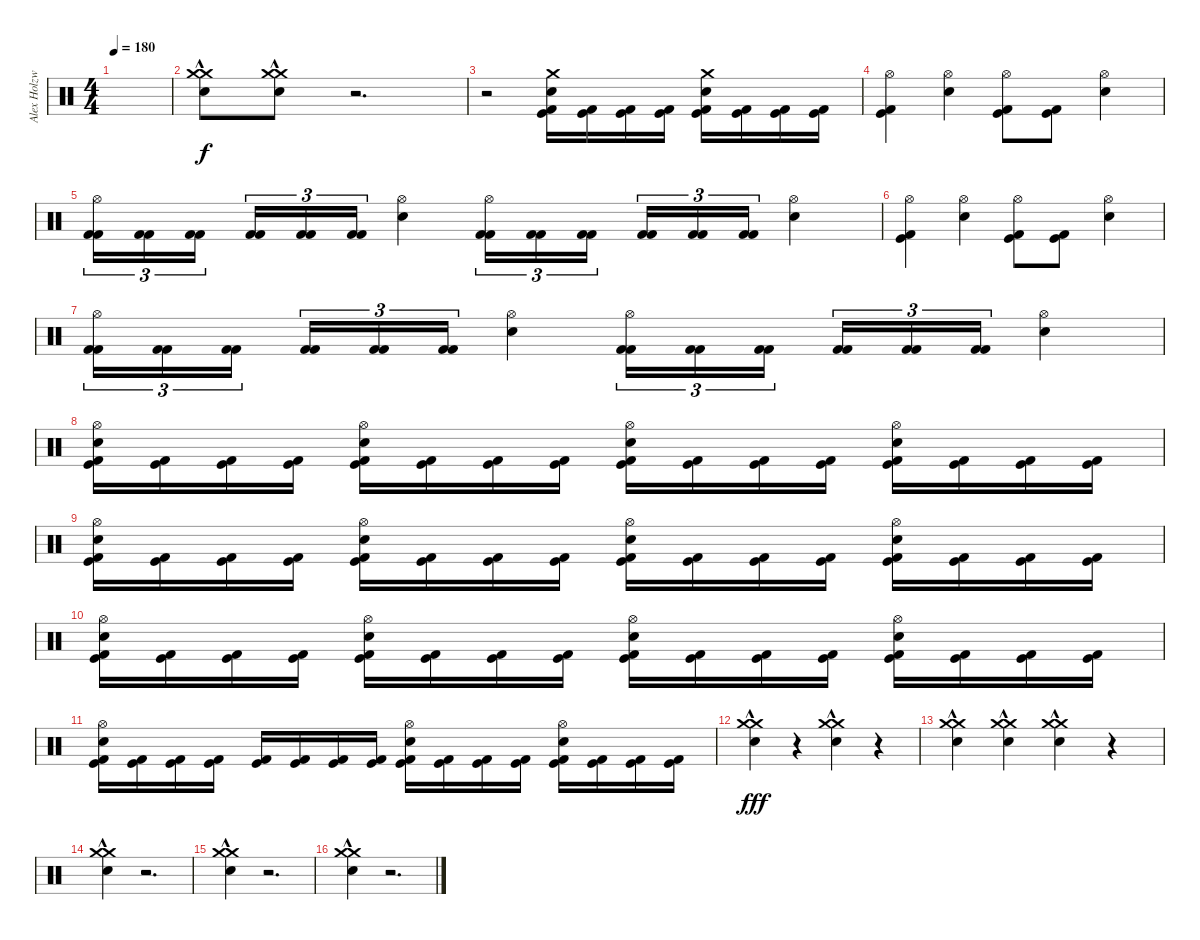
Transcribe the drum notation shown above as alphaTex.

\track ("Alex Holzwarth" "Alex Holzw") {instrument percussion}
\staff {score}
\articulation defaults
\ts (4 4)
\tempo 180
\clef neutral
\ks c
|
("Crash medium (hit)"{hac} "Snare (hit) 2" "Crash medium (hit)"{hac}).8{volume 16} ("Crash medium (hit)"{hac} "Snare (hit) 2" "Crash medium (hit)"{hac}).8{volume 16} r.2{d volume 0} |
r.2{volume 16} ("Kick (hit) 2" "Kick (hit)" "Snare (hit) 2" "Crash medium (hit)").16{dy f} ("Kick (hit) 2" "Kick (hit)").16 ("Kick (hit) 2" "Kick (hit)").16 ("Kick (hit) 2" "Kick (hit)").16 ("Kick (hit) 2" "Kick (hit)" "Crash medium (hit)" "Snare (hit) 2").16 ("Kick (hit) 2" "Kick (hit)").16 ("Kick (hit) 2" "Kick (hit)").16 ("Kick (hit) 2" "Kick (hit)").16 |
("Kick (hit)" "Kick (hit) 2" "Hi-Hat (open)").4{volume 16} ("Snare (hit) 2" "Hi-Hat (open)").4 ("Kick (hit)" "Kick (hit) 2" "Hi-Hat (open)").8 ("Kick (hit)" "Kick (hit) 2").8 ("Snare (hit) 2" "Hi-Hat (open)").4 |
("Kick (hit) 2" "Kick (hit) 2" "Hi-Hat (open)").16{tu (3 2)} ("Kick (hit) 2" "Kick (hit) 2").16{tu (3 2)} ("Kick (hit) 2" "Kick (hit) 2").16{tu (3 2) beam splitsecondary} ("Kick (hit) 2" "Kick (hit) 2").16{tu (3 2)} ("Kick (hit) 2" "Kick (hit) 2").16{tu (3 2)} ("Kick (hit) 2" "Kick (hit) 2").16{tu (3 2)} ("Snare (hit) 2" "Hi-Hat (open)").4 ("Kick (hit) 2" "Kick (hit) 2" "Hi-Hat (open)").16{tu (3 2)} ("Kick (hit) 2" "Kick (hit) 2").16{tu (3 2)} ("Kick (hit) 2" "Kick (hit) 2").16{tu (3 2) beam splitsecondary} ("Kick (hit) 2" "Kick (hit) 2").16{tu (3 2)} ("Kick (hit) 2" "Kick (hit) 2").16{tu (3 2)} ("Kick (hit) 2" "Kick (hit) 2").16{tu (3 2)} ("Snare (hit) 2" "Hi-Hat (open)").4 |
("Kick (hit)" "Kick (hit) 2" "Hi-Hat (open)").4{volume 16} ("Snare (hit) 2" "Hi-Hat (open)").4 ("Kick (hit)" "Kick (hit) 2" "Hi-Hat (open)").8 ("Kick (hit)" "Kick (hit) 2").8 ("Snare (hit) 2" "Hi-Hat (open)").4 |
("Kick (hit) 2" "Kick (hit) 2" "Hi-Hat (open)").16{tu (3 2)} ("Kick (hit) 2" "Kick (hit) 2").16{tu (3 2)} ("Kick (hit) 2" "Kick (hit) 2").16{tu (3 2) beam splitsecondary} ("Kick (hit) 2" "Kick (hit) 2").16{tu (3 2)} ("Kick (hit) 2" "Kick (hit) 2").16{tu (3 2)} ("Kick (hit) 2" "Kick (hit) 2").16{tu (3 2)} ("Snare (hit) 2" "Hi-Hat (open)").4 ("Kick (hit) 2" "Kick (hit) 2" "Hi-Hat (open)").16{tu (3 2)} ("Kick (hit) 2" "Kick (hit) 2").16{tu (3 2)} ("Kick (hit) 2" "Kick (hit) 2").16{tu (3 2) beam splitsecondary} ("Kick (hit) 2" "Kick (hit) 2").16{tu (3 2)} ("Kick (hit) 2" "Kick (hit) 2").16{tu (3 2)} ("Kick (hit) 2" "Kick (hit) 2").16{tu (3 2)} ("Snare (hit) 2" "Hi-Hat (open)").4 |
("Kick (hit) 2" "Kick (hit)" "Snare (hit) 2" "Hi-Hat (open)").16 ("Kick (hit) 2" "Kick (hit)").16 ("Kick (hit) 2" "Kick (hit)").16 ("Kick (hit) 2" "Kick (hit)").16 ("Kick (hit) 2" "Kick (hit)" "Hi-Hat (open)" "Snare (hit) 2").16 ("Kick (hit) 2" "Kick (hit)").16 ("Kick (hit) 2" "Kick (hit)").16 ("Kick (hit) 2" "Kick (hit)").16 ("Kick (hit) 2" "Kick (hit)" "Hi-Hat (open)" "Snare (hit) 2").16 ("Kick (hit) 2" "Kick (hit)").16 ("Kick (hit) 2" "Kick (hit)").16 ("Kick (hit) 2" "Kick (hit)").16 ("Kick (hit) 2" "Kick (hit)" "Hi-Hat (open)" "Snare (hit) 2").16 ("Kick (hit) 2" "Kick (hit)").16 ("Kick (hit) 2" "Kick (hit)").16 ("Kick (hit) 2" "Kick (hit)").16 |
("Kick (hit) 2" "Kick (hit)" "Snare (hit) 2" "Hi-Hat (open)").16 ("Kick (hit) 2" "Kick (hit)").16 ("Kick (hit) 2" "Kick (hit)").16 ("Kick (hit) 2" "Kick (hit)").16 ("Kick (hit) 2" "Kick (hit)" "Hi-Hat (open)" "Snare (hit) 2").16 ("Kick (hit) 2" "Kick (hit)").16 ("Kick (hit) 2" "Kick (hit)").16 ("Kick (hit) 2" "Kick (hit)").16 ("Kick (hit) 2" "Kick (hit)" "Hi-Hat (open)" "Snare (hit) 2").16 ("Kick (hit) 2" "Kick (hit)").16 ("Kick (hit) 2" "Kick (hit)").16 ("Kick (hit) 2" "Kick (hit)").16 ("Kick (hit) 2" "Kick (hit)" "Hi-Hat (open)" "Snare (hit) 2").16 ("Kick (hit) 2" "Kick (hit)").16 ("Kick (hit) 2" "Kick (hit)").16 ("Kick (hit) 2" "Kick (hit)").16 |
("Kick (hit) 2" "Kick (hit)" "Snare (hit) 2" "Hi-Hat (open)").16 ("Kick (hit) 2" "Kick (hit)").16 ("Kick (hit) 2" "Kick (hit)").16 ("Kick (hit) 2" "Kick (hit)").16 ("Kick (hit) 2" "Kick (hit)" "Hi-Hat (open)" "Snare (hit) 2").16 ("Kick (hit) 2" "Kick (hit)").16 ("Kick (hit) 2" "Kick (hit)").16 ("Kick (hit) 2" "Kick (hit)").16 ("Kick (hit) 2" "Kick (hit)" "Hi-Hat (open)" "Snare (hit) 2").16 ("Kick (hit) 2" "Kick (hit)").16 ("Kick (hit) 2" "Kick (hit)").16 ("Kick (hit) 2" "Kick (hit)").16 ("Kick (hit) 2" "Kick (hit)" "Hi-Hat (open)" "Snare (hit) 2").16 ("Kick (hit) 2" "Kick (hit)").16 ("Kick (hit) 2" "Kick (hit)").16 ("Kick (hit) 2" "Kick (hit)").16 |
("Kick (hit) 2" "Kick (hit)" "Snare (hit) 2" "Hi-Hat (open)").16 ("Kick (hit) 2" "Kick (hit)").16 ("Kick (hit) 2" "Kick (hit)").16 ("Kick (hit) 2" "Kick (hit)").16 ("Kick (hit) 2" "Kick (hit)").16 ("Kick (hit) 2" "Kick (hit)").16 ("Kick (hit) 2" "Kick (hit)").16 ("Kick (hit) 2" "Kick (hit)").16 ("Kick (hit) 2" "Kick (hit)" "Snare (hit) 2" "Hi-Hat (open)").16 ("Kick (hit) 2" "Kick (hit)").16 ("Kick (hit) 2" "Kick (hit)").16 ("Kick (hit) 2" "Kick (hit)").16 ("Kick (hit) 2" "Kick (hit)" "Snare (hit) 2" "Hi-Hat (open)").16 ("Kick (hit) 2" "Kick (hit)").16 ("Kick (hit) 2" "Kick (hit)").16 ("Kick (hit) 2" "Kick (hit)").16 |
("Crash medium (hit)"{hac} "Snare (hit) 2" "Crash medium (hit)"{hac}).4{dy fff volume 16} r.4{volume 0} ("Crash medium (hit)"{hac} "Snare (hit) 2" "Crash medium (hit)"{hac}).4{volume 16} r.4{volume 0} |
("Crash medium (hit)"{hac} "Snare (hit) 2" "Crash medium (hit)"{hac}).4{volume 16} ("Crash medium (hit)"{hac} "Snare (hit) 2" "Crash medium (hit)"{hac}).4{volume 16} ("Crash medium (hit)"{hac} "Snare (hit) 2" "Crash medium (hit)"{hac}).4{volume 16} r.4{volume 0} |
("Crash medium (hit)"{hac} "Snare (hit) 2" "Crash medium (hit)"{hac}).4{volume 16} r.2{d volume 0} |
("Crash medium (hit)"{hac} "Snare (hit) 2" "Crash medium (hit)"{hac}).4{volume 16} r.2{d volume 0} |
("Crash medium (hit)"{hac} "Snare (hit) 2" "Crash medium (hit)"{hac}).4{volume 16} r.2{d volume 0}
